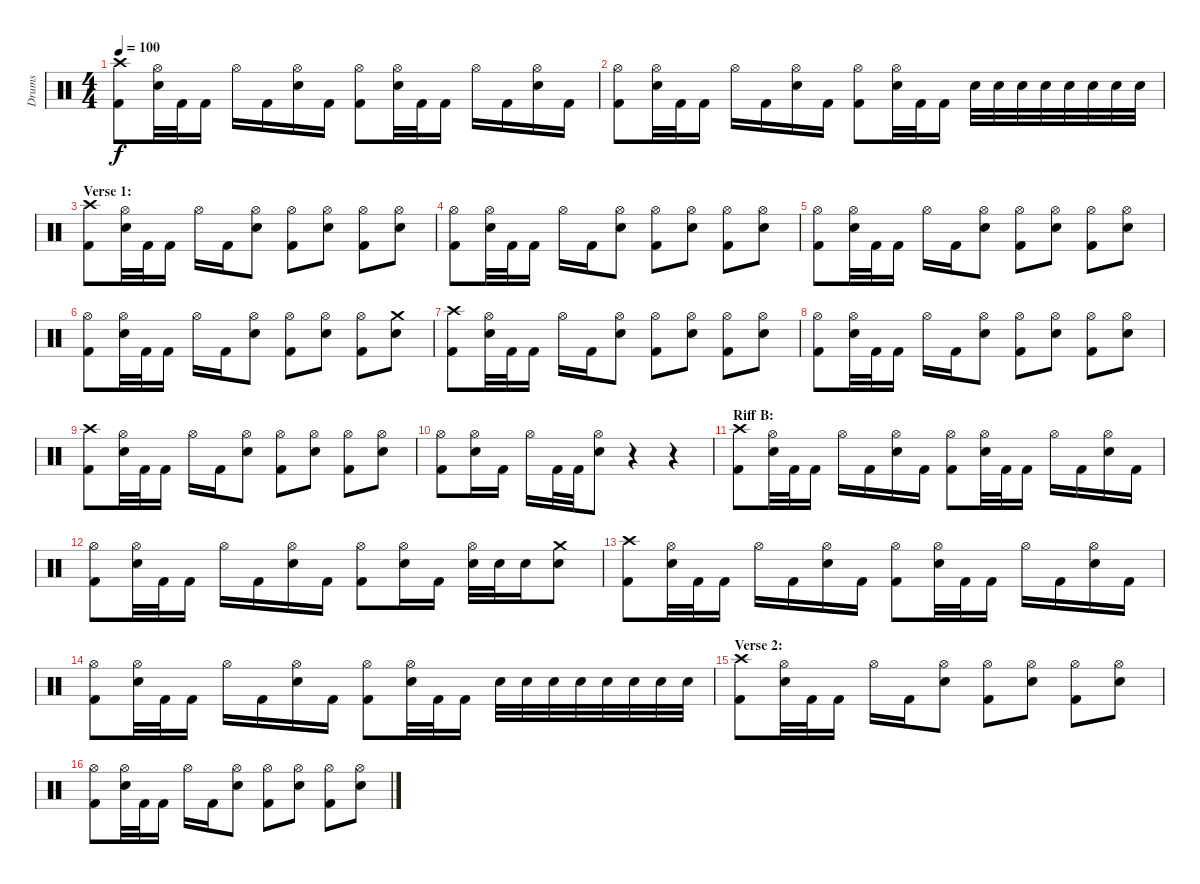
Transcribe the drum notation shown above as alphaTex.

\track ("Drums" "Drums") {instrument percussion}
\staff {score}
\articulation defaults
\ts (4 4)
\tempo 100
\clef neutral
\ks c
("Crash high (hit)" "Kick (hit) 2").8{dy f} ("Hi-Hat (open)" "Electric Snare (hit)").32 "Kick (hit) 2".32 "Kick (hit) 2".16 "Hi-Hat (open)".16 "Kick (hit) 2".16 ("Hi-Hat (open)" "Electric Snare (hit)").16 "Kick (hit) 2".16 ("Hi-Hat (open)" "Kick (hit) 2").8 ("Hi-Hat (open)" "Electric Snare (hit)").32 "Kick (hit) 2".32 "Kick (hit) 2".16 "Hi-Hat (open)".16 "Kick (hit) 2".16 ("Hi-Hat (open)" "Electric Snare (hit)").16 "Kick (hit) 2".16 |
("Hi-Hat (open)" "Kick (hit) 2").8 ("Hi-Hat (open)" "Electric Snare (hit)").32 "Kick (hit) 2".32 "Kick (hit) 2".16 "Hi-Hat (open)".16 "Kick (hit) 2".16 ("Hi-Hat (open)" "Electric Snare (hit)").16 "Kick (hit) 2".16 ("Hi-Hat (open)" "Kick (hit) 2").8 ("Hi-Hat (open)" "Electric Snare (hit)").32 "Kick (hit) 2".32 "Kick (hit) 2".16 "Electric Snare (hit)".32 "Electric Snare (hit)".32 "Electric Snare (hit)".32 "Electric Snare (hit)".32 "Electric Snare (hit)".32 "Electric Snare (hit)".32 "Electric Snare (hit)".32 "Electric Snare (hit)".32 |
\section ("" "Verse 1:")
("Crash high (hit)" "Kick (hit) 2").8 ("Hi-Hat (open)" "Electric Snare (hit)").32 "Kick (hit) 2".32 "Kick (hit) 2".16 "Hi-Hat (open)".16 "Kick (hit) 2".16 ("Hi-Hat (open)" "Electric Snare (hit)").8 ("Hi-Hat (open)" "Kick (hit) 2").8 ("Hi-Hat (open)" "Electric Snare (hit)").8 ("Hi-Hat (open)" "Kick (hit) 2").8 ("Hi-Hat (open)" "Electric Snare (hit)").8 |
("Hi-Hat (open)" "Kick (hit) 2").8 ("Hi-Hat (open)" "Electric Snare (hit)").32 "Kick (hit) 2".32 "Kick (hit) 2".16 "Hi-Hat (open)".16 "Kick (hit) 2".16 ("Hi-Hat (open)" "Electric Snare (hit)").8 ("Hi-Hat (open)" "Kick (hit) 2").8 ("Hi-Hat (open)" "Electric Snare (hit)").8 ("Hi-Hat (open)" "Kick (hit) 2").8 ("Hi-Hat (open)" "Electric Snare (hit)").8 |
("Hi-Hat (open)" "Kick (hit) 2").8 ("Hi-Hat (open)" "Electric Snare (hit)").32 "Kick (hit) 2".32 "Kick (hit) 2".16 "Hi-Hat (open)".16 "Kick (hit) 2".16 ("Hi-Hat (open)" "Electric Snare (hit)").8 ("Hi-Hat (open)" "Kick (hit) 2").8 ("Hi-Hat (open)" "Electric Snare (hit)").8 ("Hi-Hat (open)" "Kick (hit) 2").8 ("Hi-Hat (open)" "Electric Snare (hit)").8 |
("Hi-Hat (open)" "Kick (hit) 2").8 ("Hi-Hat (open)" "Electric Snare (hit)").32 "Kick (hit) 2".32 "Kick (hit) 2".16 "Hi-Hat (open)".16 "Kick (hit) 2".16 ("Hi-Hat (open)" "Electric Snare (hit)").8 ("Hi-Hat (open)" "Kick (hit) 2").8 ("Hi-Hat (open)" "Electric Snare (hit)").8 ("Hi-Hat (open)" "Kick (hit) 2").8 ("Crash medium (hit)" "Electric Snare (hit)").8 |
("Crash high (hit)" "Kick (hit) 2").8 ("Hi-Hat (open)" "Electric Snare (hit)").32 "Kick (hit) 2".32 "Kick (hit) 2".16 "Hi-Hat (open)".16 "Kick (hit) 2".16 ("Hi-Hat (open)" "Electric Snare (hit)").8 ("Hi-Hat (open)" "Kick (hit) 2").8 ("Hi-Hat (open)" "Electric Snare (hit)").8 ("Hi-Hat (open)" "Kick (hit) 2").8 ("Hi-Hat (open)" "Electric Snare (hit)").8 |
("Hi-Hat (open)" "Kick (hit) 2").8 ("Hi-Hat (open)" "Electric Snare (hit)").32 "Kick (hit) 2".32 "Kick (hit) 2".16 "Hi-Hat (open)".16 "Kick (hit) 2".16 ("Hi-Hat (open)" "Electric Snare (hit)").8 ("Hi-Hat (open)" "Kick (hit) 2").8 ("Hi-Hat (open)" "Electric Snare (hit)").8 ("Hi-Hat (open)" "Kick (hit) 2").8 ("Hi-Hat (open)" "Electric Snare (hit)").8 |
("Crash high (hit)" "Kick (hit) 2").8 ("Hi-Hat (open)" "Electric Snare (hit)").32 "Kick (hit) 2".32 "Kick (hit) 2".16 "Hi-Hat (open)".16 "Kick (hit) 2".16 ("Hi-Hat (open)" "Electric Snare (hit)").8 ("Hi-Hat (open)" "Kick (hit) 2").8 ("Hi-Hat (open)" "Electric Snare (hit)").8 ("Hi-Hat (open)" "Kick (hit) 2").8 ("Hi-Hat (open)" "Electric Snare (hit)").8 |
("Hi-Hat (open)" "Kick (hit) 2").8 ("Hi-Hat (open)" "Electric Snare (hit)").16 "Kick (hit) 2".16 "Hi-Hat (open)".16 "Kick (hit) 2".32 "Kick (hit) 2".32 ("Hi-Hat (open)" "Electric Snare (hit)").8 r.4 r.4 |
\section ("" "Riff B:")
("Crash high (hit)" "Kick (hit) 2").8 ("Hi-Hat (open)" "Electric Snare (hit)").32 "Kick (hit) 2".32 "Kick (hit) 2".16 "Hi-Hat (open)".16 "Kick (hit) 2".16 ("Hi-Hat (open)" "Electric Snare (hit)").16 "Kick (hit) 2".16 ("Hi-Hat (open)" "Kick (hit) 2").8 ("Hi-Hat (open)" "Electric Snare (hit)").32 "Kick (hit) 2".32 "Kick (hit) 2".16 "Hi-Hat (open)".16 "Kick (hit) 2".16 ("Hi-Hat (open)" "Electric Snare (hit)").16 "Kick (hit) 2".16 |
("Hi-Hat (open)" "Kick (hit) 2").8 ("Hi-Hat (open)" "Electric Snare (hit)").32 "Kick (hit) 2".32 "Kick (hit) 2".16 "Hi-Hat (open)".16 "Kick (hit) 2".16 ("Hi-Hat (open)" "Electric Snare (hit)").16 "Kick (hit) 2".16 ("Hi-Hat (open)" "Kick (hit) 2").8 ("Hi-Hat (open)" "Electric Snare (hit)").16 "Kick (hit) 2".16 ("Hi-Hat (open)" "Electric Snare (hit)").32 "Electric Snare (hit)".32 "Electric Snare (hit)".16 ("Crash medium (hit)" "Electric Snare (hit)").8 |
("Crash high (hit)" "Kick (hit) 2").8 ("Hi-Hat (open)" "Electric Snare (hit)").32 "Kick (hit) 2".32 "Kick (hit) 2".16 "Hi-Hat (open)".16 "Kick (hit) 2".16 ("Hi-Hat (open)" "Electric Snare (hit)").16 "Kick (hit) 2".16 ("Hi-Hat (open)" "Kick (hit) 2").8 ("Hi-Hat (open)" "Electric Snare (hit)").32 "Kick (hit) 2".32 "Kick (hit) 2".16 "Hi-Hat (open)".16 "Kick (hit) 2".16 ("Hi-Hat (open)" "Electric Snare (hit)").16 "Kick (hit) 2".16 |
("Hi-Hat (open)" "Kick (hit) 2").8 ("Hi-Hat (open)" "Electric Snare (hit)").32 "Kick (hit) 2".32 "Kick (hit) 2".16 "Hi-Hat (open)".16 "Kick (hit) 2".16 ("Hi-Hat (open)" "Electric Snare (hit)").16 "Kick (hit) 2".16 ("Hi-Hat (open)" "Kick (hit) 2").8 ("Hi-Hat (open)" "Electric Snare (hit)").32 "Kick (hit) 2".32 "Kick (hit) 2".16 "Electric Snare (hit)".32 "Electric Snare (hit)".32 "Electric Snare (hit)".32 "Electric Snare (hit)".32 "Electric Snare (hit)".32 "Electric Snare (hit)".32 "Electric Snare (hit)".32 "Electric Snare (hit)".32 |
\section ("" "Verse 2:")
("Crash high (hit)" "Kick (hit) 2").8 ("Hi-Hat (open)" "Electric Snare (hit)").32 "Kick (hit) 2".32 "Kick (hit) 2".16 "Hi-Hat (open)".16 "Kick (hit) 2".16 ("Hi-Hat (open)" "Electric Snare (hit)").8 ("Hi-Hat (open)" "Kick (hit) 2").8 ("Hi-Hat (open)" "Electric Snare (hit)").8 ("Hi-Hat (open)" "Kick (hit) 2").8 ("Hi-Hat (open)" "Electric Snare (hit)").8 |
("Hi-Hat (open)" "Kick (hit) 2").8 ("Hi-Hat (open)" "Electric Snare (hit)").32 "Kick (hit) 2".32 "Kick (hit) 2".16 "Hi-Hat (open)".16 "Kick (hit) 2".16 ("Hi-Hat (open)" "Electric Snare (hit)").8 ("Hi-Hat (open)" "Kick (hit) 2").8 ("Hi-Hat (open)" "Electric Snare (hit)").8 ("Hi-Hat (open)" "Kick (hit) 2").8 ("Hi-Hat (open)" "Electric Snare (hit)").8
